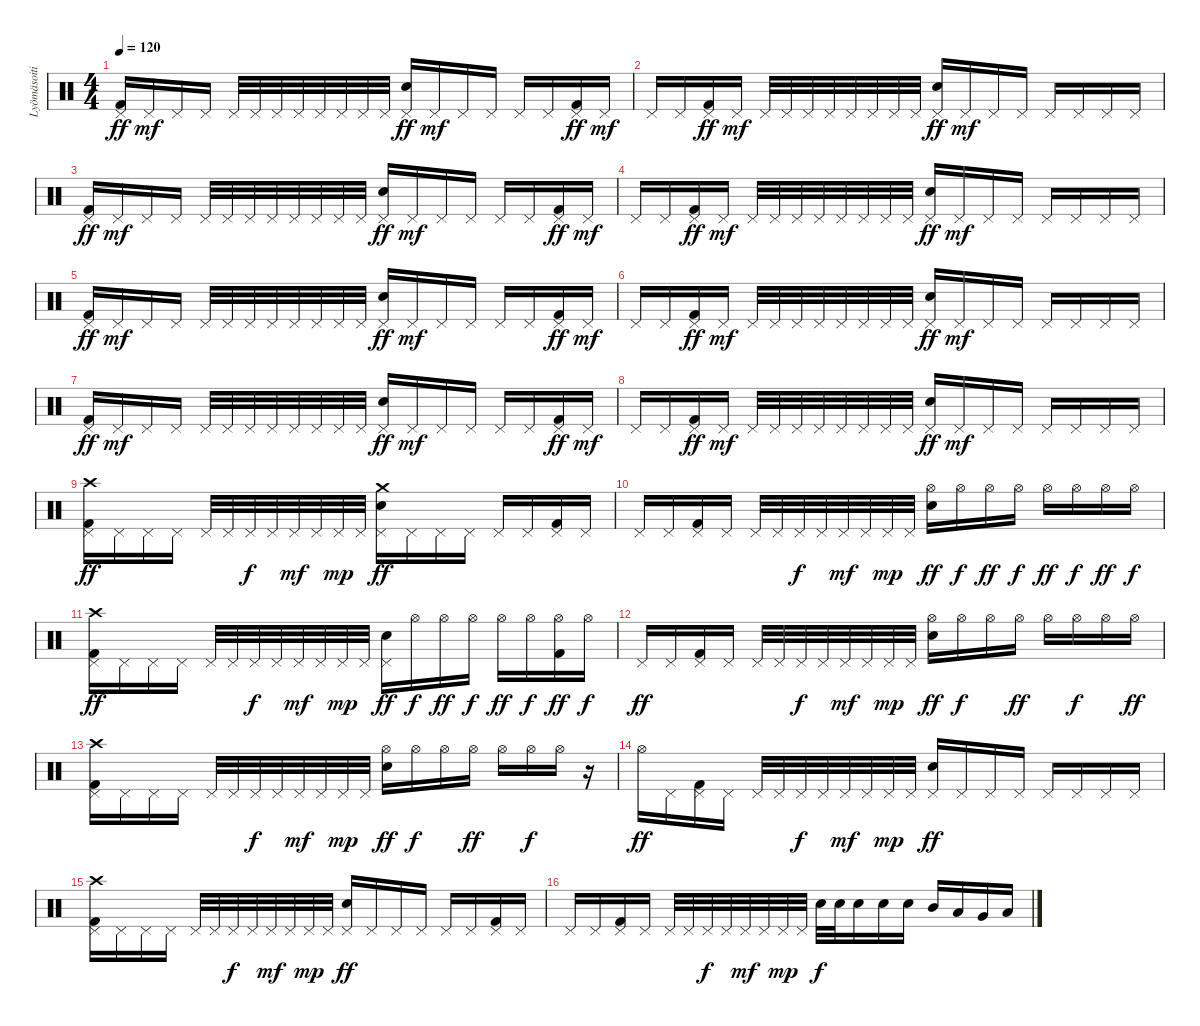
\track ("Lyömäsoitin" "Lyömäsoiti") {instrument percussion}
\staff {score}
\articulation defaults
\ts (4 4)
\tempo 120
\clef neutral
\ks c
("Pedal Hi-Hat (hit)" "Kick (hit) 2").16{dy ff} "Pedal Hi-Hat (hit)".16{dy mf} "Pedal Hi-Hat (hit)".16 "Pedal Hi-Hat (hit)".16 "Pedal Hi-Hat (hit)".32 "Pedal Hi-Hat (hit)".32 "Pedal Hi-Hat (hit)".32 "Pedal Hi-Hat (hit)".32 "Pedal Hi-Hat (hit)".32 "Pedal Hi-Hat (hit)".32 "Pedal Hi-Hat (hit)".32 "Pedal Hi-Hat (hit)".32 ("Pedal Hi-Hat (hit)" "Snare (hit) 2").16{dy ff} "Pedal Hi-Hat (hit)".16{dy mf} "Pedal Hi-Hat (hit)".16 "Pedal Hi-Hat (hit)".16 "Pedal Hi-Hat (hit)".16 "Pedal Hi-Hat (hit)".16 ("Pedal Hi-Hat (hit)" "Kick (hit) 2").16{dy ff} "Pedal Hi-Hat (hit)".16{dy mf} |
"Pedal Hi-Hat (hit)".16 "Pedal Hi-Hat (hit)".16 ("Pedal Hi-Hat (hit)" "Kick (hit) 2").16{dy ff} "Pedal Hi-Hat (hit)".16{dy mf} "Pedal Hi-Hat (hit)".32 "Pedal Hi-Hat (hit)".32 "Pedal Hi-Hat (hit)".32 "Pedal Hi-Hat (hit)".32 "Pedal Hi-Hat (hit)".32 "Pedal Hi-Hat (hit)".32 "Pedal Hi-Hat (hit)".32 "Pedal Hi-Hat (hit)".32 ("Pedal Hi-Hat (hit)" "Snare (hit) 2").16{dy ff} "Pedal Hi-Hat (hit)".16{dy mf} "Pedal Hi-Hat (hit)".16 "Pedal Hi-Hat (hit)".16 "Pedal Hi-Hat (hit)".16 "Pedal Hi-Hat (hit)".16 "Pedal Hi-Hat (hit)".16 "Pedal Hi-Hat (hit)".16 |
("Pedal Hi-Hat (hit)" "Kick (hit) 2").16{dy ff} "Pedal Hi-Hat (hit)".16{dy mf} "Pedal Hi-Hat (hit)".16 "Pedal Hi-Hat (hit)".16 "Pedal Hi-Hat (hit)".32 "Pedal Hi-Hat (hit)".32 "Pedal Hi-Hat (hit)".32 "Pedal Hi-Hat (hit)".32 "Pedal Hi-Hat (hit)".32 "Pedal Hi-Hat (hit)".32 "Pedal Hi-Hat (hit)".32 "Pedal Hi-Hat (hit)".32 ("Pedal Hi-Hat (hit)" "Snare (hit) 2").16{dy ff} "Pedal Hi-Hat (hit)".16{dy mf} "Pedal Hi-Hat (hit)".16 "Pedal Hi-Hat (hit)".16 "Pedal Hi-Hat (hit)".16 "Pedal Hi-Hat (hit)".16 ("Pedal Hi-Hat (hit)" "Kick (hit) 2").16{dy ff} "Pedal Hi-Hat (hit)".16{dy mf} |
"Pedal Hi-Hat (hit)".16 "Pedal Hi-Hat (hit)".16 ("Pedal Hi-Hat (hit)" "Kick (hit) 2").16{dy ff} "Pedal Hi-Hat (hit)".16{dy mf} "Pedal Hi-Hat (hit)".32 "Pedal Hi-Hat (hit)".32 "Pedal Hi-Hat (hit)".32 "Pedal Hi-Hat (hit)".32 "Pedal Hi-Hat (hit)".32 "Pedal Hi-Hat (hit)".32 "Pedal Hi-Hat (hit)".32 "Pedal Hi-Hat (hit)".32 ("Pedal Hi-Hat (hit)" "Snare (hit) 2").16{dy ff} "Pedal Hi-Hat (hit)".16{dy mf} "Pedal Hi-Hat (hit)".16 "Pedal Hi-Hat (hit)".16 "Pedal Hi-Hat (hit)".16 "Pedal Hi-Hat (hit)".16 "Pedal Hi-Hat (hit)".16 "Pedal Hi-Hat (hit)".16 |
("Pedal Hi-Hat (hit)" "Kick (hit) 2").16{dy ff} "Pedal Hi-Hat (hit)".16{dy mf} "Pedal Hi-Hat (hit)".16 "Pedal Hi-Hat (hit)".16 "Pedal Hi-Hat (hit)".32 "Pedal Hi-Hat (hit)".32 "Pedal Hi-Hat (hit)".32 "Pedal Hi-Hat (hit)".32 "Pedal Hi-Hat (hit)".32 "Pedal Hi-Hat (hit)".32 "Pedal Hi-Hat (hit)".32 "Pedal Hi-Hat (hit)".32 ("Pedal Hi-Hat (hit)" "Snare (hit) 2").16{dy ff} "Pedal Hi-Hat (hit)".16{dy mf} "Pedal Hi-Hat (hit)".16 "Pedal Hi-Hat (hit)".16 "Pedal Hi-Hat (hit)".16 "Pedal Hi-Hat (hit)".16 ("Pedal Hi-Hat (hit)" "Kick (hit) 2").16{dy ff} "Pedal Hi-Hat (hit)".16{dy mf} |
"Pedal Hi-Hat (hit)".16 "Pedal Hi-Hat (hit)".16 ("Pedal Hi-Hat (hit)" "Kick (hit) 2").16{dy ff} "Pedal Hi-Hat (hit)".16{dy mf} "Pedal Hi-Hat (hit)".32 "Pedal Hi-Hat (hit)".32 "Pedal Hi-Hat (hit)".32 "Pedal Hi-Hat (hit)".32 "Pedal Hi-Hat (hit)".32 "Pedal Hi-Hat (hit)".32 "Pedal Hi-Hat (hit)".32 "Pedal Hi-Hat (hit)".32 ("Pedal Hi-Hat (hit)" "Snare (hit) 2").16{dy ff} "Pedal Hi-Hat (hit)".16{dy mf} "Pedal Hi-Hat (hit)".16 "Pedal Hi-Hat (hit)".16 "Pedal Hi-Hat (hit)".16 "Pedal Hi-Hat (hit)".16 "Pedal Hi-Hat (hit)".16 "Pedal Hi-Hat (hit)".16 |
("Pedal Hi-Hat (hit)" "Kick (hit) 2").16{dy ff} "Pedal Hi-Hat (hit)".16{dy mf} "Pedal Hi-Hat (hit)".16 "Pedal Hi-Hat (hit)".16 "Pedal Hi-Hat (hit)".32 "Pedal Hi-Hat (hit)".32 "Pedal Hi-Hat (hit)".32 "Pedal Hi-Hat (hit)".32 "Pedal Hi-Hat (hit)".32 "Pedal Hi-Hat (hit)".32 "Pedal Hi-Hat (hit)".32 "Pedal Hi-Hat (hit)".32 ("Pedal Hi-Hat (hit)" "Snare (hit) 2").16{dy ff} "Pedal Hi-Hat (hit)".16{dy mf} "Pedal Hi-Hat (hit)".16 "Pedal Hi-Hat (hit)".16 "Pedal Hi-Hat (hit)".16 "Pedal Hi-Hat (hit)".16 ("Pedal Hi-Hat (hit)" "Kick (hit) 2").16{dy ff} "Pedal Hi-Hat (hit)".16{dy mf} |
"Pedal Hi-Hat (hit)".16 "Pedal Hi-Hat (hit)".16 ("Pedal Hi-Hat (hit)" "Kick (hit) 2").16{dy ff} "Pedal Hi-Hat (hit)".16{dy mf} "Pedal Hi-Hat (hit)".32 "Pedal Hi-Hat (hit)".32 "Pedal Hi-Hat (hit)".32 "Pedal Hi-Hat (hit)".32 "Pedal Hi-Hat (hit)".32 "Pedal Hi-Hat (hit)".32 "Pedal Hi-Hat (hit)".32 "Pedal Hi-Hat (hit)".32 ("Pedal Hi-Hat (hit)" "Snare (hit) 2").16{dy ff} "Pedal Hi-Hat (hit)".16{dy mf} "Pedal Hi-Hat (hit)".16 "Pedal Hi-Hat (hit)".16 "Pedal Hi-Hat (hit)".16 "Pedal Hi-Hat (hit)".16 "Pedal Hi-Hat (hit)".16 "Pedal Hi-Hat (hit)".16 |
("Crash high (hit)" "Pedal Hi-Hat (hit)" "Kick (hit) 2").16{dy ff} "Pedal Hi-Hat (hit)".16 "Pedal Hi-Hat (hit)".16 "Pedal Hi-Hat (hit)".16 "Pedal Hi-Hat (hit)".32 "Pedal Hi-Hat (hit)".32 "Pedal Hi-Hat (hit)".32{dy f} "Pedal Hi-Hat (hit)".32 "Pedal Hi-Hat (hit)".32{dy mf} "Pedal Hi-Hat (hit)".32 "Pedal Hi-Hat (hit)".32{dy mp} "Pedal Hi-Hat (hit)".32 ("Crash medium (hit)" "Pedal Hi-Hat (hit)" "Snare (hit) 2").16{dy ff} "Pedal Hi-Hat (hit)".16 "Pedal Hi-Hat (hit)".16 "Pedal Hi-Hat (hit)".16 "Pedal Hi-Hat (hit)".16 "Pedal Hi-Hat (hit)".16 ("Pedal Hi-Hat (hit)" "Kick (hit) 2").16 "Pedal Hi-Hat (hit)".16 |
"Pedal Hi-Hat (hit)".16 "Pedal Hi-Hat (hit)".16 ("Pedal Hi-Hat (hit)" "Kick (hit) 2").16 "Pedal Hi-Hat (hit)".16 "Pedal Hi-Hat (hit)".32 "Pedal Hi-Hat (hit)".32 "Pedal Hi-Hat (hit)".32{dy f} "Pedal Hi-Hat (hit)".32 "Pedal Hi-Hat (hit)".32{dy mf} "Pedal Hi-Hat (hit)".32 "Pedal Hi-Hat (hit)".32{dy mp} "Pedal Hi-Hat (hit)".32 ("Hi-Hat (open)" "Snare (hit) 2").16{dy ff} "Hi-Hat (open)".16{dy f} "Hi-Hat (open)".16{dy ff} "Hi-Hat (open)".16{dy f} "Hi-Hat (open)".16{dy ff} "Hi-Hat (open)".16{dy f} "Hi-Hat (open)".16{dy ff} "Hi-Hat (open)".16{dy f} |
("Pedal Hi-Hat (hit)" "Crash high (hit)" "Kick (hit) 2").16{dy ff} "Pedal Hi-Hat (hit)".16 "Pedal Hi-Hat (hit)".16 "Pedal Hi-Hat (hit)".16 "Pedal Hi-Hat (hit)".32 "Pedal Hi-Hat (hit)".32 "Pedal Hi-Hat (hit)".32{dy f} "Pedal Hi-Hat (hit)".32 "Pedal Hi-Hat (hit)".32{dy mf} "Pedal Hi-Hat (hit)".32 "Pedal Hi-Hat (hit)".32{dy mp} "Pedal Hi-Hat (hit)".32 ("Pedal Hi-Hat (hit)" "Snare (hit) 2").16{dy ff} "Hi-Hat (open)".16{dy f} "Hi-Hat (open)".16{dy ff} "Hi-Hat (open)".16{dy f} "Hi-Hat (open)".16{dy ff} "Hi-Hat (open)".16{dy f} ("Hi-Hat (open)" "Kick (hit) 2").16{dy ff} "Hi-Hat (open)".16{dy f} |
"Pedal Hi-Hat (hit)".16{dy ff} "Pedal Hi-Hat (hit)".16 ("Pedal Hi-Hat (hit)" "Kick (hit) 2").16 "Pedal Hi-Hat (hit)".16 "Pedal Hi-Hat (hit)".32 "Pedal Hi-Hat (hit)".32 "Pedal Hi-Hat (hit)".32{dy f} "Pedal Hi-Hat (hit)".32 "Pedal Hi-Hat (hit)".32{dy mf} "Pedal Hi-Hat (hit)".32 "Pedal Hi-Hat (hit)".32{dy mp} "Pedal Hi-Hat (hit)".32 ("Hi-Hat (open)" "Snare (hit) 2").16{dy ff} "Hi-Hat (open)".16{dy f} "Hi-Hat (open)".16 "Hi-Hat (open)".16{dy ff} "Hi-Hat (open)".16 "Hi-Hat (open)".16{dy f} "Hi-Hat (open)".16 "Hi-Hat (open)".16{dy ff} |
("Crash high (hit)" "Pedal Hi-Hat (hit)" "Kick (hit) 2").16 "Pedal Hi-Hat (hit)".16 "Pedal Hi-Hat (hit)".16 "Pedal Hi-Hat (hit)".16 "Pedal Hi-Hat (hit)".32 "Pedal Hi-Hat (hit)".32 "Pedal Hi-Hat (hit)".32{dy f} "Pedal Hi-Hat (hit)".32 "Pedal Hi-Hat (hit)".32{dy mf} "Pedal Hi-Hat (hit)".32 "Pedal Hi-Hat (hit)".32{dy mp} "Pedal Hi-Hat (hit)".32 ("Hi-Hat (open)" "Snare (hit) 2").16{dy ff} "Hi-Hat (open)".16{dy f} "Hi-Hat (open)".16 "Hi-Hat (open)".16{dy ff} "Hi-Hat (open)".16 "Hi-Hat (open)".16{dy f} "Hi-Hat (open)".16 r.16 |
"Hi-Hat (open)".16{dy ff} "Pedal Hi-Hat (hit)".16 ("Pedal Hi-Hat (hit)" "Kick (hit) 2").16 "Pedal Hi-Hat (hit)".16 "Pedal Hi-Hat (hit)".32 "Pedal Hi-Hat (hit)".32 "Pedal Hi-Hat (hit)".32{dy f} "Pedal Hi-Hat (hit)".32 "Pedal Hi-Hat (hit)".32{dy mf} "Pedal Hi-Hat (hit)".32 "Pedal Hi-Hat (hit)".32{dy mp} "Pedal Hi-Hat (hit)".32 ("Pedal Hi-Hat (hit)" "Snare (hit) 2").16{dy ff} "Pedal Hi-Hat (hit)".16 "Pedal Hi-Hat (hit)".16 "Pedal Hi-Hat (hit)".16 "Pedal Hi-Hat (hit)".16 "Pedal Hi-Hat (hit)".16 "Pedal Hi-Hat (hit)".16 "Pedal Hi-Hat (hit)".16 |
("Crash high (hit)" "Pedal Hi-Hat (hit)" "Kick (hit) 2").16 "Pedal Hi-Hat (hit)".16 "Pedal Hi-Hat (hit)".16 "Pedal Hi-Hat (hit)".16 "Pedal Hi-Hat (hit)".32 "Pedal Hi-Hat (hit)".32 "Pedal Hi-Hat (hit)".32{dy f} "Pedal Hi-Hat (hit)".32 "Pedal Hi-Hat (hit)".32{dy mf} "Pedal Hi-Hat (hit)".32 "Pedal Hi-Hat (hit)".32{dy mp} "Pedal Hi-Hat (hit)".32 ("Pedal Hi-Hat (hit)" "Snare (hit) 2").16{dy ff} "Pedal Hi-Hat (hit)".16 "Pedal Hi-Hat (hit)".16 "Pedal Hi-Hat (hit)".16 "Pedal Hi-Hat (hit)".16 "Pedal Hi-Hat (hit)".16 ("Pedal Hi-Hat (hit)" "Kick (hit) 2").16 "Pedal Hi-Hat (hit)".16 |
"Pedal Hi-Hat (hit)".16 "Pedal Hi-Hat (hit)".16 ("Pedal Hi-Hat (hit)" "Kick (hit) 2").16 "Pedal Hi-Hat (hit)".16 "Pedal Hi-Hat (hit)".32 "Pedal Hi-Hat (hit)".32 "Pedal Hi-Hat (hit)".32{dy f} "Pedal Hi-Hat (hit)".32 "Pedal Hi-Hat (hit)".32{dy mf} "Pedal Hi-Hat (hit)".32 "Pedal Hi-Hat (hit)".32{dy mp} "Pedal Hi-Hat (hit)".32 "Snare (hit) 2".32{dy f} "Snare (hit) 2".32 "Snare (hit) 2".16 "Snare (hit) 2".16 "Snare (hit) 2".16 "Mid Tom (hit)".16 "Low Tom (hit)".16 "Very Low Tom (hit)".16 "Low Floor Tom (hit)".16
